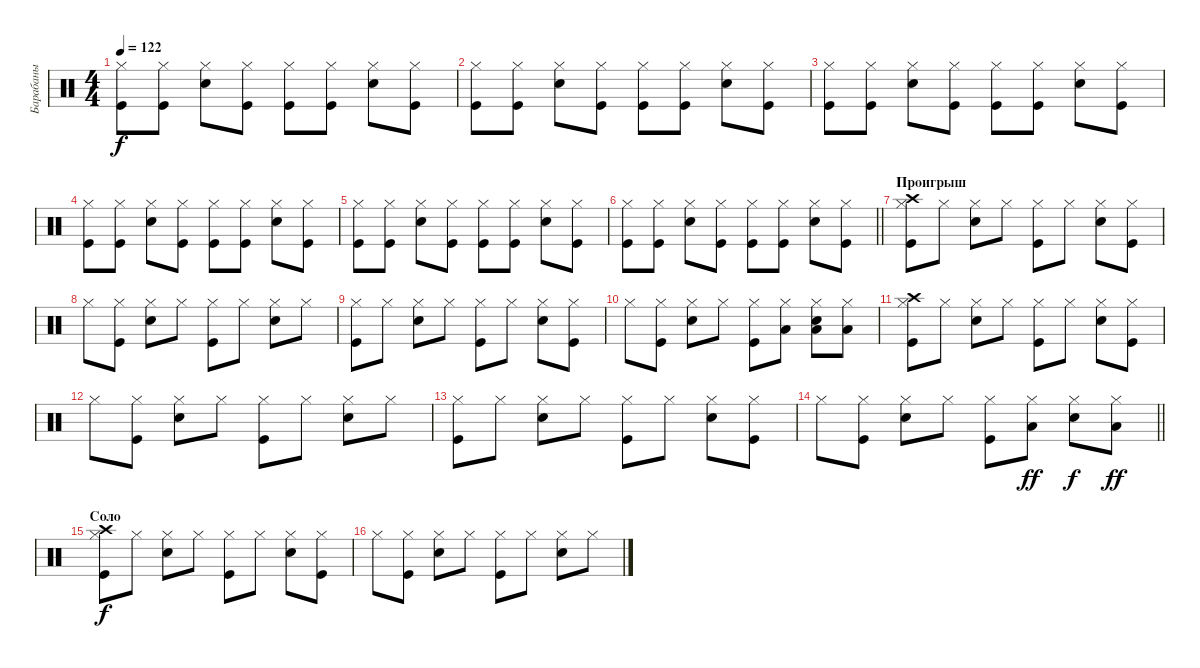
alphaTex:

\track ("Барабаны" "Барабаны") {instrument percussion}
\staff {score}
\articulation defaults
\ts (4 4)
\tempo 122
\clef neutral
\ks c
("Kick (hit)" "Hi-Hat (closed)").8{dy f} ("Kick (hit)" "Hi-Hat (closed)").8 ("Snare (hit) 2" "Hi-Hat (closed)").8 ("Kick (hit)" "Hi-Hat (closed)").8 ("Kick (hit)" "Hi-Hat (closed)").8 ("Kick (hit)" "Hi-Hat (closed)").8 ("Snare (hit) 2" "Hi-Hat (closed)").8 ("Kick (hit)" "Hi-Hat (closed)").8 |
("Kick (hit)" "Hi-Hat (closed)").8 ("Kick (hit)" "Hi-Hat (closed)").8 ("Snare (hit) 2" "Hi-Hat (closed)").8 ("Kick (hit)" "Hi-Hat (closed)").8 ("Kick (hit)" "Hi-Hat (closed)").8 ("Kick (hit)" "Hi-Hat (closed)").8 ("Snare (hit) 2" "Hi-Hat (closed)").8 ("Kick (hit)" "Hi-Hat (closed)").8 |
("Kick (hit)" "Hi-Hat (closed)").8 ("Kick (hit)" "Hi-Hat (closed)").8 ("Snare (hit) 2" "Hi-Hat (closed)").8 ("Kick (hit)" "Hi-Hat (closed)").8 ("Kick (hit)" "Hi-Hat (closed)").8 ("Kick (hit)" "Hi-Hat (closed)").8 ("Snare (hit) 2" "Hi-Hat (closed)").8 ("Kick (hit)" "Hi-Hat (closed)").8 |
("Kick (hit)" "Hi-Hat (closed)").8 ("Kick (hit)" "Hi-Hat (closed)").8 ("Snare (hit) 2" "Hi-Hat (closed)").8 ("Kick (hit)" "Hi-Hat (closed)").8 ("Kick (hit)" "Hi-Hat (closed)").8 ("Kick (hit)" "Hi-Hat (closed)").8 ("Snare (hit) 2" "Hi-Hat (closed)").8 ("Kick (hit)" "Hi-Hat (closed)").8 |
("Kick (hit)" "Hi-Hat (closed)").8 ("Kick (hit)" "Hi-Hat (closed)").8 ("Snare (hit) 2" "Hi-Hat (closed)").8 ("Kick (hit)" "Hi-Hat (closed)").8 ("Kick (hit)" "Hi-Hat (closed)").8 ("Kick (hit)" "Hi-Hat (closed)").8 ("Snare (hit) 2" "Hi-Hat (closed)").8 ("Kick (hit)" "Hi-Hat (closed)").8 |
\barLineRight lightlight
("Kick (hit)" "Hi-Hat (closed)").8 ("Kick (hit)" "Hi-Hat (closed)").8 ("Snare (hit) 2" "Hi-Hat (closed)").8 ("Kick (hit)" "Hi-Hat (closed)").8 ("Kick (hit)" "Hi-Hat (closed)").8 ("Kick (hit)" "Hi-Hat (closed)").8 ("Snare (hit) 2" "Hi-Hat (closed)").8 ("Kick (hit)" "Hi-Hat (closed)").8 |
\section ("" "Проигрыш")
("Kick (hit)" "Hi-Hat (closed)" "Crash high (hit)").8 "Hi-Hat (closed)".8 ("Snare (hit) 2" "Hi-Hat (closed)").8 "Hi-Hat (closed)".8 ("Kick (hit)" "Hi-Hat (closed)").8 "Hi-Hat (closed)".8 ("Snare (hit) 2" "Hi-Hat (closed)").8 ("Kick (hit)" "Hi-Hat (closed)").8 |
"Hi-Hat (closed)".8 ("Kick (hit)" "Hi-Hat (closed)").8 ("Snare (hit) 2" "Hi-Hat (closed)").8 "Hi-Hat (closed)".8 ("Kick (hit)" "Hi-Hat (closed)").8 "Hi-Hat (closed)".8 ("Snare (hit) 2" "Hi-Hat (closed)").8 "Hi-Hat (closed)".8 |
("Kick (hit)" "Hi-Hat (closed)").8 "Hi-Hat (closed)".8 ("Snare (hit) 2" "Hi-Hat (closed)").8 "Hi-Hat (closed)".8 ("Kick (hit)" "Hi-Hat (closed)").8 "Hi-Hat (closed)".8 ("Snare (hit) 2" "Hi-Hat (closed)").8 ("Kick (hit)" "Hi-Hat (closed)").8 |
"Hi-Hat (closed)".8 ("Kick (hit)" "Hi-Hat (closed)").8 ("Snare (hit) 2" "Hi-Hat (closed)").8 "Hi-Hat (closed)".8 ("Kick (hit)" "Hi-Hat (closed)").8 ("Hi-Hat (closed)" "Low Tom (hit)").8 ("Snare (hit) 2" "Hi-Hat (closed)" "Low Tom (hit)").8 ("Hi-Hat (closed)" "Low Tom (hit)").8 |
("Kick (hit)" "Hi-Hat (closed)" "Crash high (hit)").8 "Hi-Hat (closed)".8 ("Snare (hit) 2" "Hi-Hat (closed)").8 "Hi-Hat (closed)".8 ("Kick (hit)" "Hi-Hat (closed)").8 "Hi-Hat (closed)".8 ("Snare (hit) 2" "Hi-Hat (closed)").8 ("Kick (hit)" "Hi-Hat (closed)").8 |
"Hi-Hat (closed)".8 ("Kick (hit)" "Hi-Hat (closed)").8 ("Snare (hit) 2" "Hi-Hat (closed)").8 "Hi-Hat (closed)".8 ("Kick (hit)" "Hi-Hat (closed)").8 "Hi-Hat (closed)".8 ("Snare (hit) 2" "Hi-Hat (closed)").8 "Hi-Hat (closed)".8 |
("Kick (hit)" "Hi-Hat (closed)").8 "Hi-Hat (closed)".8 ("Snare (hit) 2" "Hi-Hat (closed)").8 "Hi-Hat (closed)".8 ("Kick (hit)" "Hi-Hat (closed)").8 "Hi-Hat (closed)".8 ("Snare (hit) 2" "Hi-Hat (closed)").8 ("Kick (hit)" "Hi-Hat (closed)").8 |
\barLineRight lightlight "Hi-Hat (closed)".8
("Kick (hit)" "Hi-Hat (closed)").8 ("Snare (hit) 2" "Hi-Hat (closed)").8 "Hi-Hat (closed)".8 ("Kick (hit)" "Hi-Hat (closed)").8 ("Hi-Hat (closed)" "Low Floor Tom (hit)").8{dy ff} ("Snare (hit) 2" "Hi-Hat (closed)").8{dy f} ("Hi-Hat (closed)" "Low Floor Tom (hit)").8{dy ff} |
\section ("" "Соло")
("Kick (hit)" "Hi-Hat (closed)" "Crash high (hit)").8{dy f} "Hi-Hat (closed)".8 ("Snare (hit) 2" "Hi-Hat (closed)").8 "Hi-Hat (closed)".8 ("Kick (hit)" "Hi-Hat (closed)").8 "Hi-Hat (closed)".8 ("Snare (hit) 2" "Hi-Hat (closed)").8 ("Kick (hit)" "Hi-Hat (closed)").8 |
"Hi-Hat (closed)".8 ("Kick (hit)" "Hi-Hat (closed)").8 ("Snare (hit) 2" "Hi-Hat (closed)").8 "Hi-Hat (closed)".8 ("Kick (hit)" "Hi-Hat (closed)").8 "Hi-Hat (closed)".8 ("Snare (hit) 2" "Hi-Hat (closed)").8 "Hi-Hat (closed)".8
